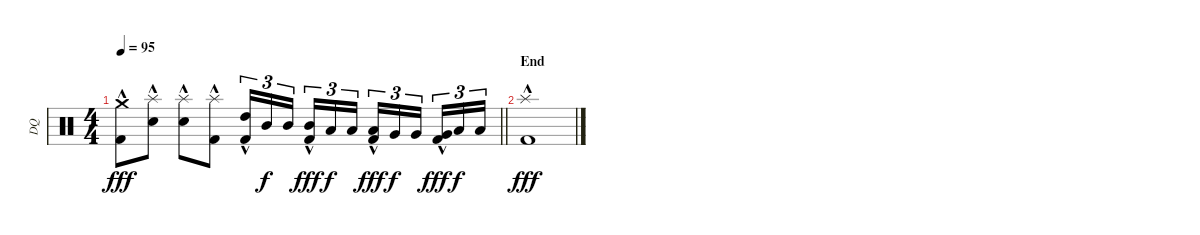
\track ("DQ" "DQ") {instrument percussion}
\staff {score}
\articulation defaults
\ts (4 4)
\tempo 95
\clef neutral
\barLineRight lightlight
\ks c
("Kick (hit) 2"{hac} "Crash medium (hit)").8{dy fff} ("Snare (hit) 2"{hac} "Splash (hit)").8 ("Snare (hit) 2"{hac} "Splash (hit)").8 ("Kick (hit) 2"{hac} "Splash (hit)").8 ("Kick (hit) 2"{hac} "High Tom (hit)").16{tu (3 2)} "Mid Tom (hit)".16{tu (3 2) dy f} "Mid Tom (hit)".16{tu (3 2) beam splitsecondary} ("Kick (hit) 2"{hac} "Mid Tom (hit)").16{tu (3 2) dy fff} "Low Tom (hit)".16{tu (3 2) dy f} "Low Tom (hit)".16{tu (3 2)} ("Kick (hit) 2"{hac} "Low Tom (hit)").16{tu (3 2) dy fff} "Very Low Tom (hit)".16{tu (3 2) dy f} "Very Low Tom (hit)".16{tu (3 2) beam splitsecondary} ("Kick (hit) 2"{hac} "Very Low Tom (hit)").16{tu (3 2) dy fff} "Low Floor Tom (hit)".16{tu (3 2) dy f} "Low Floor Tom (hit)".16{tu (3 2)} |
\section ("" "End")
("Kick (hit) 2"{hac} "Splash (hit)"{hac}).1{dy fff}
